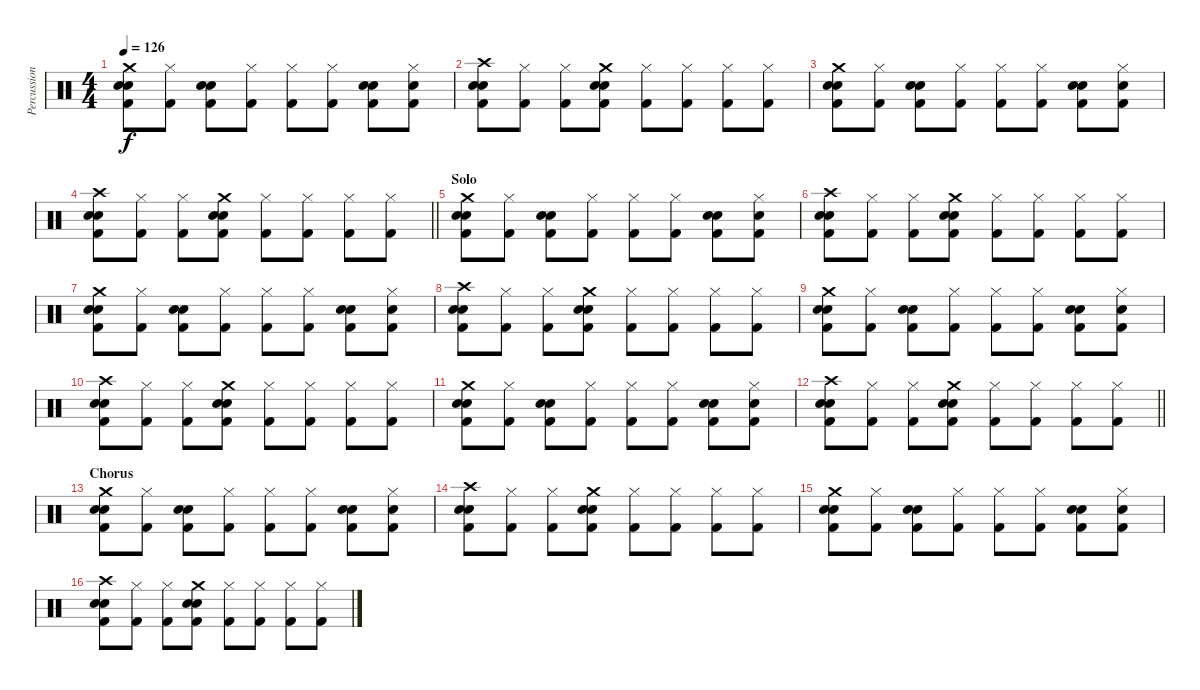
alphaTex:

\track ("Percussion" "Percussion") {instrument percussion}
\staff {score}
\articulation defaults
\ts (4 4)
\tempo 126
\clef neutral
\ks c
("Kick (hit) 2" "Crash medium (hit)" "Snare (hit) 2" "Electric Snare (hit)").8{dy f} ("Hi-Hat (closed)" "Kick (hit) 2").8 ("Kick (hit) 2" "Snare (hit) 2" "Electric Snare (hit)").8 ("Hi-Hat (closed)" "Kick (hit) 2").8 ("Hi-Hat (closed)" "Kick (hit) 2").8 ("Hi-Hat (closed)" "Kick (hit) 2").8 ("Kick (hit) 2" "Snare (hit) 2" "Electric Snare (hit)").8 ("Snare (hit) 2" "Hi-Hat (closed)" "Kick (hit) 2").8 |
("Kick (hit) 2" "Crash high (hit)" "Snare (hit) 2" "Electric Snare (hit)").8 ("Hi-Hat (closed)" "Kick (hit) 2").8 ("Hi-Hat (closed)" "Kick (hit) 2").8 ("Kick (hit) 2" "Crash medium (hit)" "Snare (hit) 2" "Electric Snare (hit)").8 ("Hi-Hat (closed)" "Kick (hit) 2").8 ("Hi-Hat (closed)" "Kick (hit) 2").8 ("Hi-Hat (closed)" "Kick (hit) 2").8 ("Hi-Hat (closed)" "Kick (hit) 2").8 |
("Kick (hit) 2" "Crash medium (hit)" "Snare (hit) 2" "Electric Snare (hit)").8 ("Hi-Hat (closed)" "Kick (hit) 2").8 ("Kick (hit) 2" "Snare (hit) 2" "Electric Snare (hit)").8 ("Hi-Hat (closed)" "Kick (hit) 2").8 ("Hi-Hat (closed)" "Kick (hit) 2").8 ("Hi-Hat (closed)" "Kick (hit) 2").8 ("Kick (hit) 2" "Snare (hit) 2" "Electric Snare (hit)").8 ("Snare (hit) 2" "Hi-Hat (closed)" "Kick (hit) 2").8 |
\barLineRight lightlight
("Kick (hit) 2" "Crash high (hit)" "Snare (hit) 2" "Electric Snare (hit)").8 ("Hi-Hat (closed)" "Kick (hit) 2").8 ("Hi-Hat (closed)" "Kick (hit) 2").8 ("Kick (hit) 2" "Crash medium (hit)" "Snare (hit) 2" "Electric Snare (hit)").8 ("Hi-Hat (closed)" "Kick (hit) 2").8 ("Hi-Hat (closed)" "Kick (hit) 2").8 ("Hi-Hat (closed)" "Kick (hit) 2").8 ("Hi-Hat (closed)" "Kick (hit) 2").8 |
\section ("" "Solo")
("Kick (hit) 2" "Crash medium (hit)" "Snare (hit) 2" "Electric Snare (hit)").8 ("Hi-Hat (closed)" "Kick (hit) 2").8 ("Kick (hit) 2" "Snare (hit) 2" "Electric Snare (hit)").8 ("Hi-Hat (closed)" "Kick (hit) 2").8 ("Hi-Hat (closed)" "Kick (hit) 2").8 ("Hi-Hat (closed)" "Kick (hit) 2").8 ("Kick (hit) 2" "Snare (hit) 2" "Electric Snare (hit)").8 ("Snare (hit) 2" "Hi-Hat (closed)" "Kick (hit) 2").8 |
("Kick (hit) 2" "Crash high (hit)" "Snare (hit) 2" "Electric Snare (hit)").8 ("Hi-Hat (closed)" "Kick (hit) 2").8 ("Hi-Hat (closed)" "Kick (hit) 2").8 ("Kick (hit) 2" "Crash medium (hit)" "Snare (hit) 2" "Electric Snare (hit)").8 ("Hi-Hat (closed)" "Kick (hit) 2").8 ("Hi-Hat (closed)" "Kick (hit) 2").8 ("Hi-Hat (closed)" "Kick (hit) 2").8 ("Hi-Hat (closed)" "Kick (hit) 2").8 |
("Kick (hit) 2" "Crash medium (hit)" "Snare (hit) 2" "Electric Snare (hit)").8 ("Hi-Hat (closed)" "Kick (hit) 2").8 ("Kick (hit) 2" "Snare (hit) 2" "Electric Snare (hit)").8 ("Hi-Hat (closed)" "Kick (hit) 2").8 ("Hi-Hat (closed)" "Kick (hit) 2").8 ("Hi-Hat (closed)" "Kick (hit) 2").8 ("Kick (hit) 2" "Snare (hit) 2" "Electric Snare (hit)").8 ("Snare (hit) 2" "Hi-Hat (closed)" "Kick (hit) 2").8 |
("Kick (hit) 2" "Crash high (hit)" "Snare (hit) 2" "Electric Snare (hit)").8 ("Hi-Hat (closed)" "Kick (hit) 2").8 ("Hi-Hat (closed)" "Kick (hit) 2").8 ("Kick (hit) 2" "Crash medium (hit)" "Snare (hit) 2" "Electric Snare (hit)").8 ("Hi-Hat (closed)" "Kick (hit) 2").8 ("Hi-Hat (closed)" "Kick (hit) 2").8 ("Hi-Hat (closed)" "Kick (hit) 2").8 ("Hi-Hat (closed)" "Kick (hit) 2").8 |
("Kick (hit) 2" "Crash medium (hit)" "Snare (hit) 2" "Electric Snare (hit)").8 ("Hi-Hat (closed)" "Kick (hit) 2").8 ("Kick (hit) 2" "Snare (hit) 2" "Electric Snare (hit)").8 ("Hi-Hat (closed)" "Kick (hit) 2").8 ("Hi-Hat (closed)" "Kick (hit) 2").8 ("Hi-Hat (closed)" "Kick (hit) 2").8 ("Kick (hit) 2" "Snare (hit) 2" "Electric Snare (hit)").8 ("Snare (hit) 2" "Hi-Hat (closed)" "Kick (hit) 2").8 |
("Kick (hit) 2" "Crash high (hit)" "Snare (hit) 2" "Electric Snare (hit)").8 ("Hi-Hat (closed)" "Kick (hit) 2").8 ("Hi-Hat (closed)" "Kick (hit) 2").8 ("Kick (hit) 2" "Crash medium (hit)" "Snare (hit) 2" "Electric Snare (hit)").8 ("Hi-Hat (closed)" "Kick (hit) 2").8 ("Hi-Hat (closed)" "Kick (hit) 2").8 ("Hi-Hat (closed)" "Kick (hit) 2").8 ("Hi-Hat (closed)" "Kick (hit) 2").8 |
("Kick (hit) 2" "Crash medium (hit)" "Snare (hit) 2" "Electric Snare (hit)").8 ("Hi-Hat (closed)" "Kick (hit) 2").8 ("Kick (hit) 2" "Snare (hit) 2" "Electric Snare (hit)").8 ("Hi-Hat (closed)" "Kick (hit) 2").8 ("Hi-Hat (closed)" "Kick (hit) 2").8 ("Hi-Hat (closed)" "Kick (hit) 2").8 ("Kick (hit) 2" "Snare (hit) 2" "Electric Snare (hit)").8 ("Snare (hit) 2" "Hi-Hat (closed)" "Kick (hit) 2").8 |
\barLineRight lightlight
("Kick (hit) 2" "Crash high (hit)" "Snare (hit) 2" "Electric Snare (hit)").8 ("Hi-Hat (closed)" "Kick (hit) 2").8 ("Hi-Hat (closed)" "Kick (hit) 2").8 ("Kick (hit) 2" "Crash medium (hit)" "Snare (hit) 2" "Electric Snare (hit)").8 ("Hi-Hat (closed)" "Kick (hit) 2").8 ("Hi-Hat (closed)" "Kick (hit) 2").8 ("Hi-Hat (closed)" "Kick (hit) 2").8 ("Hi-Hat (closed)" "Kick (hit) 2").8 |
\section ("" "Chorus")
("Kick (hit) 2" "Crash medium (hit)" "Snare (hit) 2" "Electric Snare (hit)").8 ("Hi-Hat (closed)" "Kick (hit) 2").8 ("Kick (hit) 2" "Snare (hit) 2" "Electric Snare (hit)").8 ("Hi-Hat (closed)" "Kick (hit) 2").8 ("Hi-Hat (closed)" "Kick (hit) 2").8 ("Hi-Hat (closed)" "Kick (hit) 2").8 ("Kick (hit) 2" "Snare (hit) 2" "Electric Snare (hit)").8 ("Snare (hit) 2" "Hi-Hat (closed)" "Kick (hit) 2").8 |
("Kick (hit) 2" "Crash high (hit)" "Snare (hit) 2" "Electric Snare (hit)").8 ("Hi-Hat (closed)" "Kick (hit) 2").8 ("Hi-Hat (closed)" "Kick (hit) 2").8 ("Kick (hit) 2" "Crash medium (hit)" "Snare (hit) 2" "Electric Snare (hit)").8 ("Hi-Hat (closed)" "Kick (hit) 2").8 ("Hi-Hat (closed)" "Kick (hit) 2").8 ("Hi-Hat (closed)" "Kick (hit) 2").8 ("Hi-Hat (closed)" "Kick (hit) 2").8 |
("Kick (hit) 2" "Crash medium (hit)" "Snare (hit) 2" "Electric Snare (hit)").8 ("Hi-Hat (closed)" "Kick (hit) 2").8 ("Kick (hit) 2" "Snare (hit) 2" "Electric Snare (hit)").8 ("Hi-Hat (closed)" "Kick (hit) 2").8 ("Hi-Hat (closed)" "Kick (hit) 2").8 ("Hi-Hat (closed)" "Kick (hit) 2").8 ("Kick (hit) 2" "Snare (hit) 2" "Electric Snare (hit)").8 ("Snare (hit) 2" "Hi-Hat (closed)" "Kick (hit) 2").8 |
("Kick (hit) 2" "Crash high (hit)" "Snare (hit) 2" "Electric Snare (hit)").8 ("Hi-Hat (closed)" "Kick (hit) 2").8 ("Hi-Hat (closed)" "Kick (hit) 2").8 ("Kick (hit) 2" "Crash medium (hit)" "Snare (hit) 2" "Electric Snare (hit)").8 ("Hi-Hat (closed)" "Kick (hit) 2").8 ("Hi-Hat (closed)" "Kick (hit) 2").8 ("Hi-Hat (closed)" "Kick (hit) 2").8 ("Hi-Hat (closed)" "Kick (hit) 2").8
